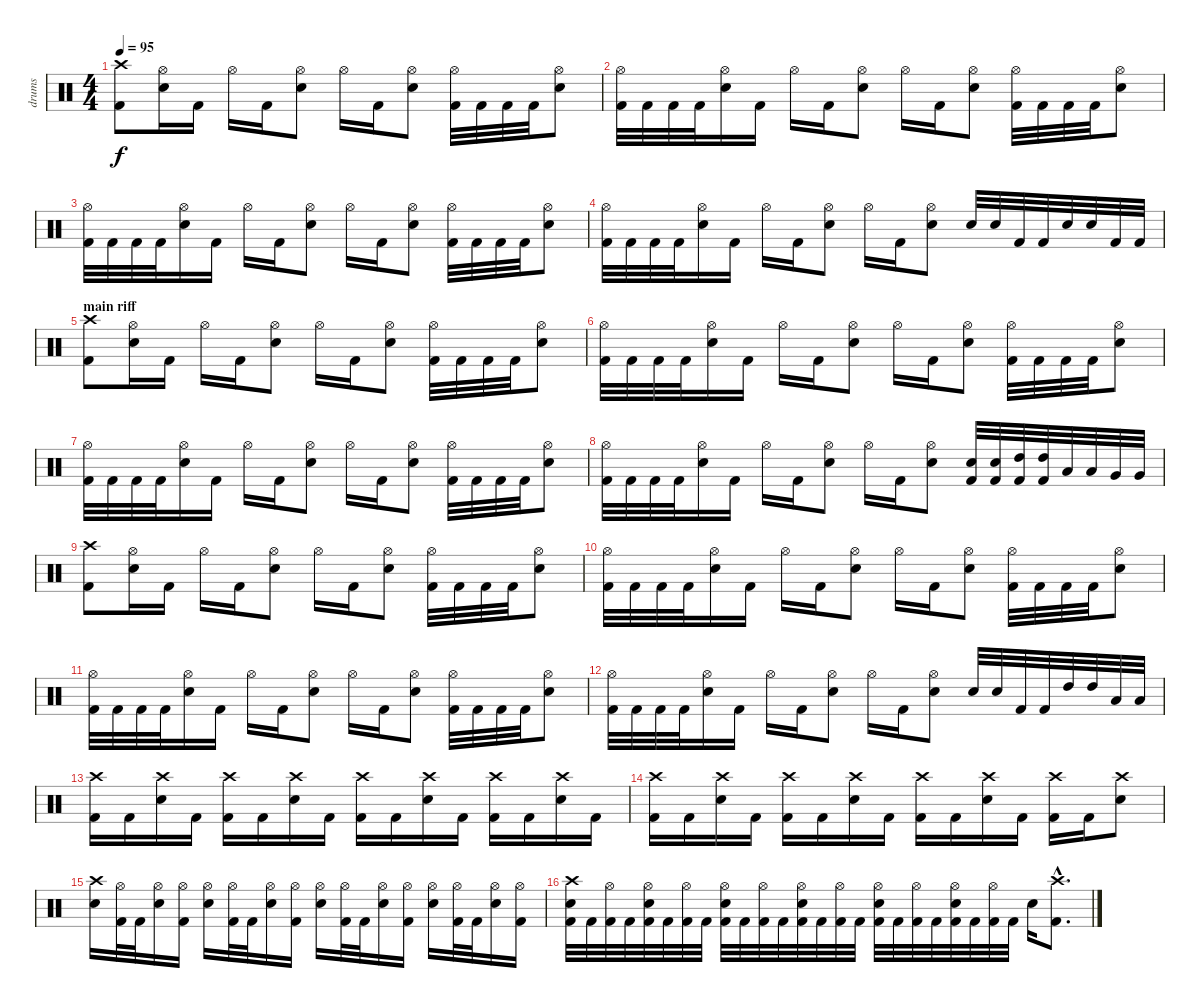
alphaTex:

\track ("drums" "drums") {instrument percussion}
\staff {score}
\articulation defaults
\ts (4 4)
\section ("" "")
\tempo 95
\clef neutral
\ks c
("Crash high (hit)" "Kick (hit) 2").8{dy f} ("Hi-Hat (open)" "Electric Snare (hit)").16 "Kick (hit) 2".16 "Hi-Hat (open)".16 "Kick (hit) 2".16 ("Hi-Hat (open)" "Electric Snare (hit)").8 "Hi-Hat (open)".16 "Kick (hit) 2".16 ("Hi-Hat (open)" "Electric Snare (hit)").8 ("Hi-Hat (open)" "Kick (hit) 2").32 "Kick (hit) 2".32 "Kick (hit) 2".32 "Kick (hit) 2".32 ("Hi-Hat (open)" "Electric Snare (hit)").8 |
("Hi-Hat (open)" "Kick (hit) 2").32 "Kick (hit) 2".32 "Kick (hit) 2".32 "Kick (hit) 2".32 ("Hi-Hat (open)" "Electric Snare (hit)").16 "Kick (hit) 2".16 "Hi-Hat (open)".16 "Kick (hit) 2".16 ("Hi-Hat (open)" "Electric Snare (hit)").8 "Hi-Hat (open)".16 "Kick (hit) 2".16 ("Hi-Hat (open)" "Electric Snare (hit)").8 ("Hi-Hat (open)" "Kick (hit) 2").32 "Kick (hit) 2".32 "Kick (hit) 2".32 "Kick (hit) 2".32 ("Hi-Hat (open)" "Electric Snare (hit)").8 |
("Hi-Hat (open)" "Kick (hit) 2").32 "Kick (hit) 2".32 "Kick (hit) 2".32 "Kick (hit) 2".32 ("Hi-Hat (open)" "Electric Snare (hit)").16 "Kick (hit) 2".16 "Hi-Hat (open)".16 "Kick (hit) 2".16 ("Hi-Hat (open)" "Electric Snare (hit)").8 "Hi-Hat (open)".16 "Kick (hit) 2".16 ("Hi-Hat (open)" "Electric Snare (hit)").8 ("Hi-Hat (open)" "Kick (hit) 2").32 "Kick (hit) 2".32 "Kick (hit) 2".32 "Kick (hit) 2".32 ("Hi-Hat (open)" "Electric Snare (hit)").8 |
("Hi-Hat (open)" "Kick (hit) 2").32 "Kick (hit) 2".32 "Kick (hit) 2".32 "Kick (hit) 2".32 ("Hi-Hat (open)" "Electric Snare (hit)").16 "Kick (hit) 2".16 "Hi-Hat (open)".16 "Kick (hit) 2".16 ("Hi-Hat (open)" "Electric Snare (hit)").8 "Hi-Hat (open)".16 "Kick (hit) 2".16 ("Hi-Hat (open)" "Electric Snare (hit)").8 "Electric Snare (hit)".32 "Electric Snare (hit)".32 "Kick (hit) 2".32 "Kick (hit) 2".32 "Electric Snare (hit)".32 "Electric Snare (hit)".32 "Kick (hit) 2".32 "Kick (hit) 2".32 |
\section ("" "main riff")
("Crash high (hit)" "Kick (hit) 2").8 ("Hi-Hat (open)" "Electric Snare (hit)").16 "Kick (hit) 2".16 "Hi-Hat (open)".16 "Kick (hit) 2".16 ("Hi-Hat (open)" "Electric Snare (hit)").8 "Hi-Hat (open)".16 "Kick (hit) 2".16 ("Hi-Hat (open)" "Electric Snare (hit)").8 ("Hi-Hat (open)" "Kick (hit) 2").32 "Kick (hit) 2".32 "Kick (hit) 2".32 "Kick (hit) 2".32 ("Hi-Hat (open)" "Electric Snare (hit)").8 |
("Hi-Hat (open)" "Kick (hit) 2").32 "Kick (hit) 2".32 "Kick (hit) 2".32 "Kick (hit) 2".32 ("Hi-Hat (open)" "Electric Snare (hit)").16 "Kick (hit) 2".16 "Hi-Hat (open)".16 "Kick (hit) 2".16 ("Hi-Hat (open)" "Electric Snare (hit)").8 "Hi-Hat (open)".16 "Kick (hit) 2".16 ("Hi-Hat (open)" "Electric Snare (hit)").8 ("Hi-Hat (open)" "Kick (hit) 2").32 "Kick (hit) 2".32 "Kick (hit) 2".32 "Kick (hit) 2".32 ("Hi-Hat (open)" "Electric Snare (hit)").8 |
("Hi-Hat (open)" "Kick (hit) 2").32 "Kick (hit) 2".32 "Kick (hit) 2".32 "Kick (hit) 2".32 ("Hi-Hat (open)" "Electric Snare (hit)").16 "Kick (hit) 2".16 "Hi-Hat (open)".16 "Kick (hit) 2".16 ("Hi-Hat (open)" "Electric Snare (hit)").8 "Hi-Hat (open)".16 "Kick (hit) 2".16 ("Hi-Hat (open)" "Electric Snare (hit)").8 ("Hi-Hat (open)" "Kick (hit) 2").32 "Kick (hit) 2".32 "Kick (hit) 2".32 "Kick (hit) 2".32 ("Hi-Hat (open)" "Electric Snare (hit)").8 |
("Hi-Hat (open)" "Kick (hit) 2").32 "Kick (hit) 2".32 "Kick (hit) 2".32 "Kick (hit) 2".32 ("Hi-Hat (open)" "Electric Snare (hit)").16 "Kick (hit) 2".16 "Hi-Hat (open)".16 "Kick (hit) 2".16 ("Hi-Hat (open)" "Electric Snare (hit)").8 "Hi-Hat (open)".16 "Kick (hit) 2".16 ("Hi-Hat (open)" "Electric Snare (hit)").8 ("Electric Snare (hit)" "Kick (hit) 2").32 ("Electric Snare (hit)" "Kick (hit) 2").32 ("High Tom (hit)" "Kick (hit) 2").32 ("High Tom (hit)" "Kick (hit) 2").32 "Low Tom (hit)".32 "Low Tom (hit)".32 "Very Low Tom (hit)".32 "Very Low Tom (hit)".32 |
("Crash high (hit)" "Kick (hit) 2").8 ("Hi-Hat (open)" "Electric Snare (hit)").16 "Kick (hit) 2".16 "Hi-Hat (open)".16 "Kick (hit) 2".16 ("Hi-Hat (open)" "Electric Snare (hit)").8 "Hi-Hat (open)".16 "Kick (hit) 2".16 ("Hi-Hat (open)" "Electric Snare (hit)").8 ("Hi-Hat (open)" "Kick (hit) 2").32 "Kick (hit) 2".32 "Kick (hit) 2".32 "Kick (hit) 2".32 ("Hi-Hat (open)" "Electric Snare (hit)").8 |
("Hi-Hat (open)" "Kick (hit) 2").32 "Kick (hit) 2".32 "Kick (hit) 2".32 "Kick (hit) 2".32 ("Hi-Hat (open)" "Electric Snare (hit)").16 "Kick (hit) 2".16 "Hi-Hat (open)".16 "Kick (hit) 2".16 ("Hi-Hat (open)" "Electric Snare (hit)").8 "Hi-Hat (open)".16 "Kick (hit) 2".16 ("Hi-Hat (open)" "Electric Snare (hit)").8 ("Hi-Hat (open)" "Kick (hit) 2").32 "Kick (hit) 2".32 "Kick (hit) 2".32 "Kick (hit) 2".32 ("Hi-Hat (open)" "Electric Snare (hit)").8 |
("Hi-Hat (open)" "Kick (hit) 2").32 "Kick (hit) 2".32 "Kick (hit) 2".32 "Kick (hit) 2".32 ("Hi-Hat (open)" "Electric Snare (hit)").16 "Kick (hit) 2".16 "Hi-Hat (open)".16 "Kick (hit) 2".16 ("Hi-Hat (open)" "Electric Snare (hit)").8 "Hi-Hat (open)".16 "Kick (hit) 2".16 ("Hi-Hat (open)" "Electric Snare (hit)").8 ("Hi-Hat (open)" "Kick (hit) 2").32 "Kick (hit) 2".32 "Kick (hit) 2".32 "Kick (hit) 2".32 ("Hi-Hat (open)" "Electric Snare (hit)").8 |
("Hi-Hat (open)" "Kick (hit) 2").32 "Kick (hit) 2".32 "Kick (hit) 2".32 "Kick (hit) 2".32 ("Hi-Hat (open)" "Electric Snare (hit)").16 "Kick (hit) 2".16 "Hi-Hat (open)".16 "Kick (hit) 2".16 ("Hi-Hat (open)" "Electric Snare (hit)").8 "Hi-Hat (open)".16 "Kick (hit) 2".16 ("Hi-Hat (open)" "Electric Snare (hit)").8 "Electric Snare (hit)".32 "Electric Snare (hit)".32 "Kick (hit) 2".32 "Kick (hit) 2".32 "High Tom (hit)".32 "High Tom (hit)".32 "Low Tom (hit)".32 "Low Tom (hit)".32 |
\section ("" "")
("Crash high (hit)" "Kick (hit) 2").16 "Kick (hit) 2".16 ("Crash high (hit)" "Electric Snare (hit)").16 "Kick (hit) 2".16 ("Crash high (hit)" "Kick (hit) 2").16 "Kick (hit) 2".16 ("Crash high (hit)" "Electric Snare (hit)").16 "Kick (hit) 2".16 ("Crash high (hit)" "Kick (hit) 2").16 "Kick (hit) 2".16 ("Crash high (hit)" "Electric Snare (hit)").16 "Kick (hit) 2".16 ("Crash high (hit)" "Kick (hit) 2").16 "Kick (hit) 2".16 ("Crash high (hit)" "Electric Snare (hit)").16 "Kick (hit) 2".16 |
("Crash high (hit)" "Kick (hit) 2").16 "Kick (hit) 2".16 ("Crash high (hit)" "Electric Snare (hit)").16 "Kick (hit) 2".16 ("Crash high (hit)" "Kick (hit) 2").16 "Kick (hit) 2".16 ("Crash high (hit)" "Electric Snare (hit)").16 "Kick (hit) 2".16 ("Crash high (hit)" "Kick (hit) 2").16 "Kick (hit) 2".16 ("Crash high (hit)" "Electric Snare (hit)").16 "Kick (hit) 2".16 ("Crash high (hit)" "Kick (hit) 2").16 "Kick (hit) 2".16 ("Crash high (hit)" "Electric Snare (hit)").8 |
("Crash high (hit)" "Electric Snare (hit)").16 ("Hi-Hat (open)" "Kick (hit) 2").32 "Kick (hit) 2".32 ("Hi-Hat (open)" "Electric Snare (hit)").16 ("Hi-Hat (open)" "Kick (hit) 2").16 ("Hi-Hat (open)" "Electric Snare (hit)").16 ("Hi-Hat (open)" "Kick (hit) 2").32 "Kick (hit) 2".32 ("Hi-Hat (open)" "Electric Snare (hit)").16 ("Hi-Hat (open)" "Kick (hit) 2").16 ("Hi-Hat (open)" "Electric Snare (hit)").16 ("Hi-Hat (open)" "Kick (hit) 2").32 "Kick (hit) 2".32 ("Hi-Hat (open)" "Electric Snare (hit)").16 ("Hi-Hat (open)" "Kick (hit) 2").16 ("Hi-Hat (open)" "Electric Snare (hit)").16 ("Hi-Hat (open)" "Kick (hit) 2").32 "Kick (hit) 2".32 ("Hi-Hat (open)" "Electric Snare (hit)").16 ("Hi-Hat (open)" "Kick (hit) 2").16 |
("Crash high (hit)" "Electric Snare (hit)" "Kick (hit) 2").32 "Kick (hit) 2".32 ("Hi-Hat (open)" "Kick (hit) 2").32 "Kick (hit) 2".32 ("Hi-Hat (open)" "Electric Snare (hit)" "Kick (hit) 2").32 "Kick (hit) 2".32 ("Hi-Hat (open)" "Kick (hit) 2").32 "Kick (hit) 2".32 ("Hi-Hat (open)" "Electric Snare (hit)" "Kick (hit) 2").32 "Kick (hit) 2".32 ("Hi-Hat (open)" "Kick (hit) 2").32 "Kick (hit) 2".32 ("Hi-Hat (open)" "Electric Snare (hit)" "Kick (hit) 2").32 "Kick (hit) 2".32 ("Hi-Hat (open)" "Kick (hit) 2").32 "Kick (hit) 2".32 ("Hi-Hat (open)" "Electric Snare (hit)" "Kick (hit) 2").32 "Kick (hit) 2".32 ("Hi-Hat (open)" "Kick (hit) 2").32 "Kick (hit) 2".32 ("Hi-Hat (open)" "Electric Snare (hit)" "Kick (hit) 2").32 "Kick (hit) 2".32 ("Hi-Hat (open)" "Kick (hit) 2").32 "Kick (hit) 2".32 "Electric Snare (hit)".16 ("Crash high (hit)"{hac} "Kick (hit) 2"{hac}).8{d}
